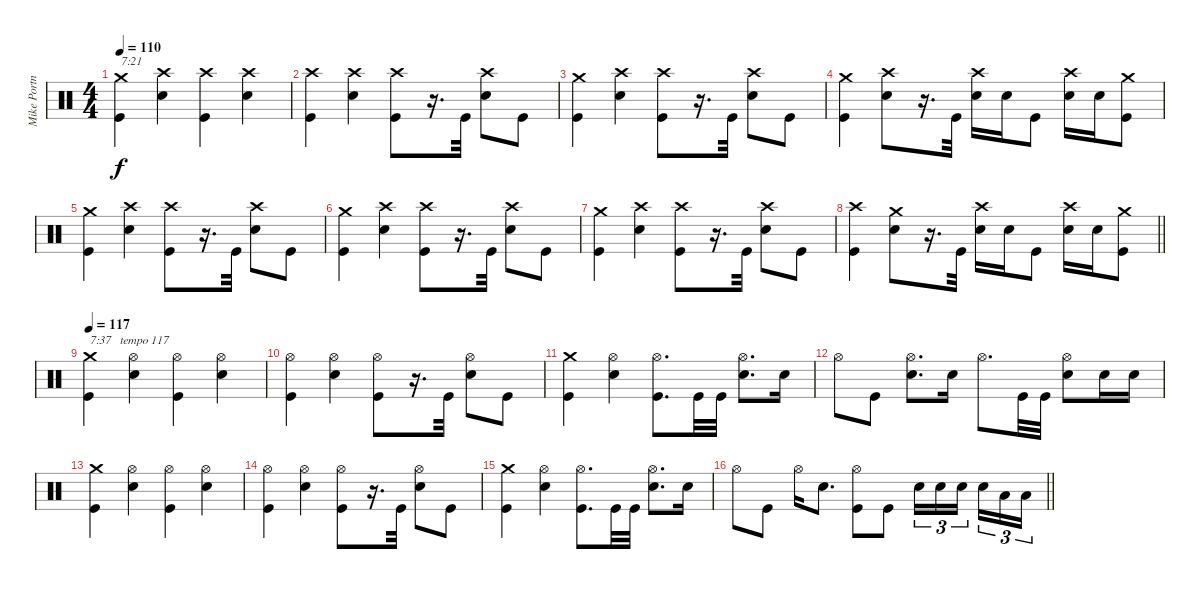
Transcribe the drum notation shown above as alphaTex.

\track ("Mike Portnoy" "Mike Portn") {instrument percussion}
\staff {score}
\articulation defaults
\ts (4 4)
\tempo 110
\clef neutral
\ks c
("Crash medium (hit)" "Kick (hit)").4{txt "7:21" dy f} ("Crash high (hit)" "Snare (hit) 2").4 ("Crash high (hit)" "Kick (hit)").4 ("Crash high (hit)" "Snare (hit) 2").4 |
("Crash high (hit)" "Kick (hit)").4 ("Crash high (hit)" "Snare (hit) 2").4 ("Crash high (hit)" "Kick (hit)").8 r.16{d} "Kick (hit)".32 ("Crash high (hit)" "Snare (hit) 2").8 "Kick (hit)".8 |
("Crash medium (hit)" "Kick (hit)").4 ("Crash high (hit)" "Snare (hit) 2").4 ("Crash high (hit)" "Kick (hit)").8 r.16{d} "Kick (hit)".32 ("Crash high (hit)" "Snare (hit) 2").8 "Kick (hit)".8 |
("Crash medium (hit)" "Kick (hit)").4 ("Crash high (hit)" "Snare (hit) 2").8 r.16{d} "Kick (hit)".32 ("Crash high (hit)" "Snare (hit) 2").16 "Snare (hit) 2".16 "Kick (hit)".8 ("Crash high (hit)" "Snare (hit) 2").16 "Snare (hit) 2".16 ("Crash medium (hit)" "Kick (hit)").8 |
("Crash medium (hit)" "Kick (hit)").4 ("Crash high (hit)" "Snare (hit) 2").4 ("Crash high (hit)" "Kick (hit)").8 r.16{d} "Kick (hit)".32 ("Crash high (hit)" "Snare (hit) 2").8 "Kick (hit)".8 |
("Crash medium (hit)" "Kick (hit)").4 ("Crash high (hit)" "Snare (hit) 2").4 ("Crash high (hit)" "Kick (hit)").8 r.16{d} "Kick (hit)".32 ("Crash high (hit)" "Snare (hit) 2").8 "Kick (hit)".8 |
("Crash medium (hit)" "Kick (hit)").4 ("Crash high (hit)" "Snare (hit) 2").4 ("Crash high (hit)" "Kick (hit)").8 r.16{d} "Kick (hit)".32 ("Crash high (hit)" "Snare (hit) 2").8 "Kick (hit)".8 |
\barLineRight lightlight
("Crash high (hit)" "Kick (hit)").4 ("Crash medium (hit)" "Snare (hit) 2").8 r.16{d} "Kick (hit)".32 ("Crash high (hit)" "Snare (hit) 2").16 "Snare (hit) 2".16 "Kick (hit)".8 ("Crash high (hit)" "Snare (hit) 2").16 "Snare (hit) 2".16 ("Crash medium (hit)" "Kick (hit)").8 |
\section ("" "")
\tempo 117
("Crash medium (hit)" "Kick (hit)").4{txt "7:37   tempo 117"} ("Hi-Hat (open)" "Snare (hit) 2").4 ("Hi-Hat (open)" "Kick (hit)").4 ("Hi-Hat (open)" "Snare (hit) 2").4 |
("Hi-Hat (open)" "Kick (hit)").4 ("Hi-Hat (open)" "Snare (hit) 2").4 ("Hi-Hat (open)" "Kick (hit)").8 r.16{d} "Kick (hit)".32 ("Hi-Hat (open)" "Snare (hit) 2").8 "Kick (hit)".8 |
("Crash medium (hit)" "Kick (hit)").4 ("Hi-Hat (open)" "Snare (hit) 2").4 ("Hi-Hat (open)" "Kick (hit)").8{d} "Kick (hit)".32 "Kick (hit)".32 ("Hi-Hat (open)" "Snare (hit) 2").8{d} "Snare (hit) 2".16 |
"Hi-Hat (open)".8 "Kick (hit)".8 ("Hi-Hat (open)" "Snare (hit) 2").8{d} "Snare (hit) 2".16 "Hi-Hat (open)".8{d} "Kick (hit)".32 "Kick (hit)".32 ("Hi-Hat (open)" "Snare (hit) 2").8 "Snare (hit) 2".16 "Snare (hit) 2".16 |
("Crash medium (hit)" "Kick (hit)").4 ("Hi-Hat (open)" "Snare (hit) 2").4 ("Hi-Hat (open)" "Kick (hit)").4 ("Hi-Hat (open)" "Snare (hit) 2").4 |
("Hi-Hat (open)" "Kick (hit)").4 ("Hi-Hat (open)" "Snare (hit) 2").4 ("Hi-Hat (open)" "Kick (hit)").8 r.16{d} "Kick (hit)".32 ("Hi-Hat (open)" "Snare (hit) 2").8 "Kick (hit)".8 |
("Crash medium (hit)" "Kick (hit)").4 ("Hi-Hat (open)" "Snare (hit) 2").4 ("Hi-Hat (open)" "Kick (hit)").8{d} "Kick (hit)".32 "Kick (hit)".32 ("Hi-Hat (open)" "Snare (hit) 2").8{d} "Snare (hit) 2".16 |
\barLineRight lightlight "Hi-Hat (open)".8 "Kick (hit)".8 "Hi-Hat (open)".16 "Snare (hit) 2".8{d}
("Hi-Hat (open)" "Kick (hit)").8 "Kick (hit)".8 "Snare (hit) 2".16{tu (3 2)} "Snare (hit) 2".16{tu (3 2)} "Snare (hit) 2".16{tu (3 2)} "Snare (hit) 2".16{tu (3 2)} "Low Tom (hit)".16{tu (3 2)} "Low Tom (hit)".16{tu (3 2)}
